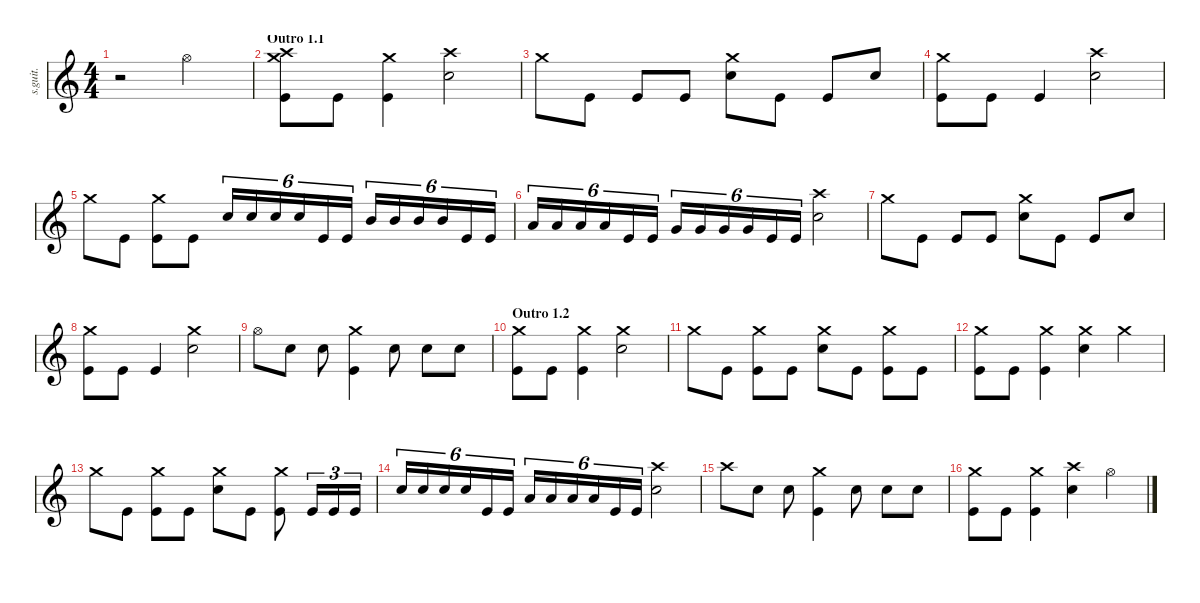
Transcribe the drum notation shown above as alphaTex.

\defaultSystemsLayout 4
\hideDynamics
\bracketExtendMode nobrackets
\track ("Joey Jordison" "s.guit.") {instrument percussion}
\staff {score}
\articulation defaults
\ts (4 4)
\tempo (150 hide)
\clef g2
\ks c
r.2{dy ff} "Hi-Hat (open)".2{lyrics (0 "") lyrics (1 "") lyrics (2 "") lyrics (3 "") lyrics (4 "")} |
\section ("" "Outro 1.1")
\tempo (160 hide)
("Crash medium (hit)" "Kick (hit)" "Crash high (hit)").8{lyrics (0 "") lyrics (1 "") lyrics (2 "") lyrics (3 "") lyrics (4 "")} "Kick (hit)".8{lyrics (0 "") lyrics (1 "") lyrics (2 "") lyrics (3 "") lyrics (4 "")} ("Kick (hit)" "Crash medium (hit)").4{lyrics (0 "") lyrics (1 "") lyrics (2 "") lyrics (3 "") lyrics (4 "")} ("Snare (hit) 2" "Crash high (hit)").2{lyrics (0 "") lyrics (1 "") lyrics (2 "") lyrics (3 "") lyrics (4 "")} |
"Crash medium (hit)".8{lyrics (0 "") lyrics (1 "") lyrics (2 "") lyrics (3 "") lyrics (4 "")} "Kick (hit)".8{lyrics (0 "") lyrics (1 "") lyrics (2 "") lyrics (3 "") lyrics (4 "")} "Kick (hit)".8{lyrics (0 "") lyrics (1 "") lyrics (2 "") lyrics (3 "") lyrics (4 "")} "Kick (hit)".8{lyrics (0 "") lyrics (1 "") lyrics (2 "") lyrics (3 "") lyrics (4 "")} ("Crash medium (hit)" "Snare (hit) 2").8{lyrics (0 "") lyrics (1 "") lyrics (2 "") lyrics (3 "") lyrics (4 "")} "Kick (hit)".8{lyrics (0 "") lyrics (1 "") lyrics (2 "") lyrics (3 "") lyrics (4 "")} "Kick (hit)".8{lyrics (0 "") lyrics (1 "") lyrics (2 "") lyrics (3 "") lyrics (4 "")} "Snare (hit) 2".8{lyrics (0 "") lyrics (1 "") lyrics (2 "") lyrics (3 "") lyrics (4 "")} |
("Crash medium (hit)" "Kick (hit)").8{lyrics (0 "") lyrics (1 "") lyrics (2 "") lyrics (3 "") lyrics (4 "")} "Kick (hit)".8{lyrics (0 "") lyrics (1 "") lyrics (2 "") lyrics (3 "") lyrics (4 "")} "Kick (hit)".4{lyrics (0 "") lyrics (1 "") lyrics (2 "") lyrics (3 "") lyrics (4 "")} ("Snare (hit) 2" "Crash high (hit)").2{lyrics (0 "") lyrics (1 "") lyrics (2 "") lyrics (3 "") lyrics (4 "")} |
"Crash medium (hit)".8{lyrics (0 "") lyrics (1 "") lyrics (2 "") lyrics (3 "") lyrics (4 "")} "Kick (hit)".8{lyrics (0 "") lyrics (1 "") lyrics (2 "") lyrics (3 "") lyrics (4 "")} ("Kick (hit)" "Crash medium (hit)").8{lyrics (0 "") lyrics (1 "") lyrics (2 "") lyrics (3 "") lyrics (4 "")} "Kick (hit)".8{lyrics (0 "") lyrics (1 "") lyrics (2 "") lyrics (3 "") lyrics (4 "")} "Snare (hit) 2".16{tu (6 4) lyrics (0 "") lyrics (1 "") lyrics (2 "") lyrics (3 "") lyrics (4 "")} "Snare (hit) 2".16{tu (6 4) lyrics (0 "") lyrics (1 "") lyrics (2 "") lyrics (3 "") lyrics (4 "")} "Snare (hit) 2".16{tu (6 4) lyrics (0 "") lyrics (1 "") lyrics (2 "") lyrics (3 "") lyrics (4 "")} "Snare (hit) 2".16{tu (6 4) lyrics (0 "") lyrics (1 "") lyrics (2 "") lyrics (3 "") lyrics (4 "")} "Kick (hit)".16{tu (6 4) lyrics (0 "") lyrics (1 "") lyrics (2 "") lyrics (3 "") lyrics (4 "")} "Kick (hit)".16{tu (6 4) lyrics (0 "") lyrics (1 "") lyrics (2 "") lyrics (3 "") lyrics (4 "")} "Mid Tom (hit)".16{tu (6 4) lyrics (0 "") lyrics (1 "") lyrics (2 "") lyrics (3 "") lyrics (4 "")} "Mid Tom (hit)".16{tu (6 4) lyrics (0 "") lyrics (1 "") lyrics (2 "") lyrics (3 "") lyrics (4 "")} "Mid Tom (hit)".16{tu (6 4) lyrics (0 "") lyrics (1 "") lyrics (2 "") lyrics (3 "") lyrics (4 "")} "Mid Tom (hit)".16{tu (6 4) lyrics (0 "") lyrics (1 "") lyrics (2 "") lyrics (3 "") lyrics (4 "")} "Kick (hit)".16{tu (6 4) lyrics (0 "") lyrics (1 "") lyrics (2 "") lyrics (3 "") lyrics (4 "")} "Kick (hit)".16{tu (6 4) lyrics (0 "") lyrics (1 "") lyrics (2 "") lyrics (3 "") lyrics (4 "")} |
"Low Tom (hit)".16{tu (6 4) lyrics (0 "") lyrics (1 "") lyrics (2 "") lyrics (3 "") lyrics (4 "")} "Low Tom (hit)".16{tu (6 4) lyrics (0 "") lyrics (1 "") lyrics (2 "") lyrics (3 "") lyrics (4 "")} "Low Tom (hit)".16{tu (6 4) lyrics (0 "") lyrics (1 "") lyrics (2 "") lyrics (3 "") lyrics (4 "")} "Low Tom (hit)".16{tu (6 4) lyrics (0 "") lyrics (1 "") lyrics (2 "") lyrics (3 "") lyrics (4 "")} "Kick (hit)".16{tu (6 4) lyrics (0 "") lyrics (1 "") lyrics (2 "") lyrics (3 "") lyrics (4 "")} "Kick (hit)".16{tu (6 4) lyrics (0 "") lyrics (1 "") lyrics (2 "") lyrics (3 "") lyrics (4 "")} "Very Low Tom (hit)".16{tu (6 4) lyrics (0 "") lyrics (1 "") lyrics (2 "") lyrics (3 "") lyrics (4 "")} "Very Low Tom (hit)".16{tu (6 4) lyrics (0 "") lyrics (1 "") lyrics (2 "") lyrics (3 "") lyrics (4 "")} "Very Low Tom (hit)".16{tu (6 4) lyrics (0 "") lyrics (1 "") lyrics (2 "") lyrics (3 "") lyrics (4 "")} "Very Low Tom (hit)".16{tu (6 4) lyrics (0 "") lyrics (1 "") lyrics (2 "") lyrics (3 "") lyrics (4 "")} "Kick (hit)".16{tu (6 4) lyrics (0 "") lyrics (1 "") lyrics (2 "") lyrics (3 "") lyrics (4 "")} "Kick (hit)".16{tu (6 4) lyrics (0 "") lyrics (1 "") lyrics (2 "") lyrics (3 "") lyrics (4 "")} ("Snare (hit) 2" "Crash high (hit)").2{lyrics (0 "") lyrics (1 "") lyrics (2 "") lyrics (3 "") lyrics (4 "")} |
"Crash medium (hit)".8{lyrics (0 "") lyrics (1 "") lyrics (2 "") lyrics (3 "") lyrics (4 "")} "Kick (hit)".8{lyrics (0 "") lyrics (1 "") lyrics (2 "") lyrics (3 "") lyrics (4 "")} "Kick (hit)".8{lyrics (0 "") lyrics (1 "") lyrics (2 "") lyrics (3 "") lyrics (4 "")} "Kick (hit)".8{lyrics (0 "") lyrics (1 "") lyrics (2 "") lyrics (3 "") lyrics (4 "")} ("Crash medium (hit)" "Snare (hit) 2").8{lyrics (0 "") lyrics (1 "") lyrics (2 "") lyrics (3 "") lyrics (4 "")} "Kick (hit)".8{lyrics (0 "") lyrics (1 "") lyrics (2 "") lyrics (3 "") lyrics (4 "")} "Kick (hit)".8{lyrics (0 "") lyrics (1 "") lyrics (2 "") lyrics (3 "") lyrics (4 "")} "Snare (hit) 2".8{lyrics (0 "") lyrics (1 "") lyrics (2 "") lyrics (3 "") lyrics (4 "")} |
("Crash medium (hit)" "Kick (hit)").8{lyrics (0 "") lyrics (1 "") lyrics (2 "") lyrics (3 "") lyrics (4 "")} "Kick (hit)".8{lyrics (0 "") lyrics (1 "") lyrics (2 "") lyrics (3 "") lyrics (4 "")} "Kick (hit)".4{lyrics (0 "") lyrics (1 "") lyrics (2 "") lyrics (3 "") lyrics (4 "")} ("Crash medium (hit)" "Snare (hit) 2").2{lyrics (0 "") lyrics (1 "") lyrics (2 "") lyrics (3 "") lyrics (4 "")} |
"Hi-Hat (open)".8{lyrics (0 "") lyrics (1 "") lyrics (2 "") lyrics (3 "") lyrics (4 "")} "Snare (hit) 2".8{lyrics (0 "") lyrics (1 "") lyrics (2 "") lyrics (3 "") lyrics (4 "")} "Snare (hit) 2".8{lyrics (0 "") lyrics (1 "") lyrics (2 "") lyrics (3 "") lyrics (4 "")} ("Kick (hit)" "Crash medium (hit)").4{lyrics (0 "") lyrics (1 "") lyrics (2 "") lyrics (3 "") lyrics (4 "")} "Snare (hit) 2".8{lyrics (0 "") lyrics (1 "") lyrics (2 "") lyrics (3 "") lyrics (4 "")} "Snare (hit) 2".8{lyrics (0 "") lyrics (1 "") lyrics (2 "") lyrics (3 "") lyrics (4 "")} "Snare (hit) 2".8{lyrics (0 "") lyrics (1 "") lyrics (2 "") lyrics (3 "") lyrics (4 "")} |
\section ("" "Outro 1.2")
("Crash medium (hit)" "Kick (hit)").8{lyrics (0 "") lyrics (1 "") lyrics (2 "") lyrics (3 "") lyrics (4 "")} "Kick (hit)".8{lyrics (0 "") lyrics (1 "") lyrics (2 "") lyrics (3 "") lyrics (4 "")} ("Kick (hit)" "Crash medium (hit)").4{lyrics (0 "") lyrics (1 "") lyrics (2 "") lyrics (3 "") lyrics (4 "")} ("Crash medium (hit)" "Snare (hit) 2").2{lyrics (0 "") lyrics (1 "") lyrics (2 "") lyrics (3 "") lyrics (4 "")} |
"Crash medium (hit)".8{lyrics (0 "") lyrics (1 "") lyrics (2 "") lyrics (3 "") lyrics (4 "")} "Kick (hit)".8{lyrics (0 "") lyrics (1 "") lyrics (2 "") lyrics (3 "") lyrics (4 "")} ("Kick (hit)" "Crash medium (hit)").8{lyrics (0 "") lyrics (1 "") lyrics (2 "") lyrics (3 "") lyrics (4 "")} "Kick (hit)".8{lyrics (0 "") lyrics (1 "") lyrics (2 "") lyrics (3 "") lyrics (4 "")} ("Crash medium (hit)" "Snare (hit) 2").8{lyrics (0 "") lyrics (1 "") lyrics (2 "") lyrics (3 "") lyrics (4 "")} "Kick (hit)".8{lyrics (0 "") lyrics (1 "") lyrics (2 "") lyrics (3 "") lyrics (4 "")} ("Kick (hit)" "Crash medium (hit)").8{lyrics (0 "") lyrics (1 "") lyrics (2 "") lyrics (3 "") lyrics (4 "")} "Kick (hit)".8{lyrics (0 "") lyrics (1 "") lyrics (2 "") lyrics (3 "") lyrics (4 "")} |
("Crash medium (hit)" "Kick (hit)").8{lyrics (0 "") lyrics (1 "") lyrics (2 "") lyrics (3 "") lyrics (4 "")} "Kick (hit)".8{lyrics (0 "") lyrics (1 "") lyrics (2 "") lyrics (3 "") lyrics (4 "")} ("Kick (hit)" "Crash medium (hit)").4{lyrics (0 "") lyrics (1 "") lyrics (2 "") lyrics (3 "") lyrics (4 "")} ("Crash medium (hit)" "Snare (hit) 2").4{lyrics (0 "") lyrics (1 "") lyrics (2 "") lyrics (3 "") lyrics (4 "")} "Crash medium (hit)".4{lyrics (0 "") lyrics (1 "") lyrics (2 "") lyrics (3 "") lyrics (4 "")} |
"Crash medium (hit)".8{lyrics (0 "") lyrics (1 "") lyrics (2 "") lyrics (3 "") lyrics (4 "")} "Kick (hit)".8{lyrics (0 "") lyrics (1 "") lyrics (2 "") lyrics (3 "") lyrics (4 "")} ("Kick (hit)" "Crash medium (hit)").8{lyrics (0 "") lyrics (1 "") lyrics (2 "") lyrics (3 "") lyrics (4 "")} "Kick (hit)".8{lyrics (0 "") lyrics (1 "") lyrics (2 "") lyrics (3 "") lyrics (4 "")} ("Crash medium (hit)" "Snare (hit) 2").8{lyrics (0 "") lyrics (1 "") lyrics (2 "") lyrics (3 "") lyrics (4 "")} "Kick (hit)".8{lyrics (0 "") lyrics (1 "") lyrics (2 "") lyrics (3 "") lyrics (4 "")} ("Kick (hit)" "Crash medium (hit)").8{lyrics (0 "") lyrics (1 "") lyrics (2 "") lyrics (3 "") lyrics (4 "")} "Kick (hit)".16{tu (3 2) lyrics (0 "") lyrics (1 "") lyrics (2 "") lyrics (3 "") lyrics (4 "")} "Kick (hit)".16{tu (3 2) lyrics (0 "") lyrics (1 "") lyrics (2 "") lyrics (3 "") lyrics (4 "")} "Kick (hit)".16{tu (3 2) lyrics (0 "") lyrics (1 "") lyrics (2 "") lyrics (3 "") lyrics (4 "")} |
"Snare (hit) 2".16{tu (6 4) lyrics (0 "") lyrics (1 "") lyrics (2 "") lyrics (3 "") lyrics (4 "")} "Snare (hit) 2".16{tu (6 4) lyrics (0 "") lyrics (1 "") lyrics (2 "") lyrics (3 "") lyrics (4 "")} "Snare (hit) 2".16{tu (6 4) lyrics (0 "") lyrics (1 "") lyrics (2 "") lyrics (3 "") lyrics (4 "")} "Snare (hit) 2".16{tu (6 4) lyrics (0 "") lyrics (1 "") lyrics (2 "") lyrics (3 "") lyrics (4 "")} "Kick (hit)".16{tu (6 4) lyrics (0 "") lyrics (1 "") lyrics (2 "") lyrics (3 "") lyrics (4 "")} "Kick (hit)".16{tu (6 4) lyrics (0 "") lyrics (1 "") lyrics (2 "") lyrics (3 "") lyrics (4 "")} "Low Tom (hit)".16{tu (6 4) lyrics (0 "") lyrics (1 "") lyrics (2 "") lyrics (3 "") lyrics (4 "")} "Low Tom (hit)".16{tu (6 4) lyrics (0 "") lyrics (1 "") lyrics (2 "") lyrics (3 "") lyrics (4 "")} "Low Tom (hit)".16{tu (6 4) lyrics (0 "") lyrics (1 "") lyrics (2 "") lyrics (3 "") lyrics (4 "")} "Low Tom (hit)".16{tu (6 4) lyrics (0 "") lyrics (1 "") lyrics (2 "") lyrics (3 "") lyrics (4 "")} "Kick (hit)".16{tu (6 4) lyrics (0 "") lyrics (1 "") lyrics (2 "") lyrics (3 "") lyrics (4 "")} "Kick (hit)".16{tu (6 4) lyrics (0 "") lyrics (1 "") lyrics (2 "") lyrics (3 "") lyrics (4 "")} ("Snare (hit) 2" "Crash high (hit)").2{lyrics (0 "") lyrics (1 "") lyrics (2 "") lyrics (3 "") lyrics (4 "")} |
"Crash high (hit)".8{lyrics (0 "") lyrics (1 "") lyrics (2 "") lyrics (3 "") lyrics (4 "")} "Snare (hit) 2".8{lyrics (0 "") lyrics (1 "") lyrics (2 "") lyrics (3 "") lyrics (4 "")} "Snare (hit) 2".8{lyrics (0 "") lyrics (1 "") lyrics (2 "") lyrics (3 "") lyrics (4 "")} ("Crash medium (hit)" "Kick (hit)").4{lyrics (0 "") lyrics (1 "") lyrics (2 "") lyrics (3 "") lyrics (4 "")} "Snare (hit) 2".8{lyrics (0 "") lyrics (1 "") lyrics (2 "") lyrics (3 "") lyrics (4 "")} "Snare (hit) 2".8{lyrics (0 "") lyrics (1 "") lyrics (2 "") lyrics (3 "") lyrics (4 "")} "Snare (hit) 2".8{lyrics (0 "") lyrics (1 "") lyrics (2 "") lyrics (3 "") lyrics (4 "")} |
("Crash medium (hit)" "Kick (hit)").8{lyrics (0 "") lyrics (1 "") lyrics (2 "") lyrics (3 "") lyrics (4 "")} "Kick (hit)".8{lyrics (0 "") lyrics (1 "") lyrics (2 "") lyrics (3 "") lyrics (4 "")} ("Kick (hit)" "Crash medium (hit)").4{lyrics (0 "") lyrics (1 "") lyrics (2 "") lyrics (3 "") lyrics (4 "")} ("Snare (hit) 2" "Crash high (hit)").4{lyrics (0 "") lyrics (1 "") lyrics (2 "") lyrics (3 "") lyrics (4 "")} "Hi-Hat (open)".4{lyrics (0 "") lyrics (1 "") lyrics (2 "") lyrics (3 "") lyrics (4 "")}
